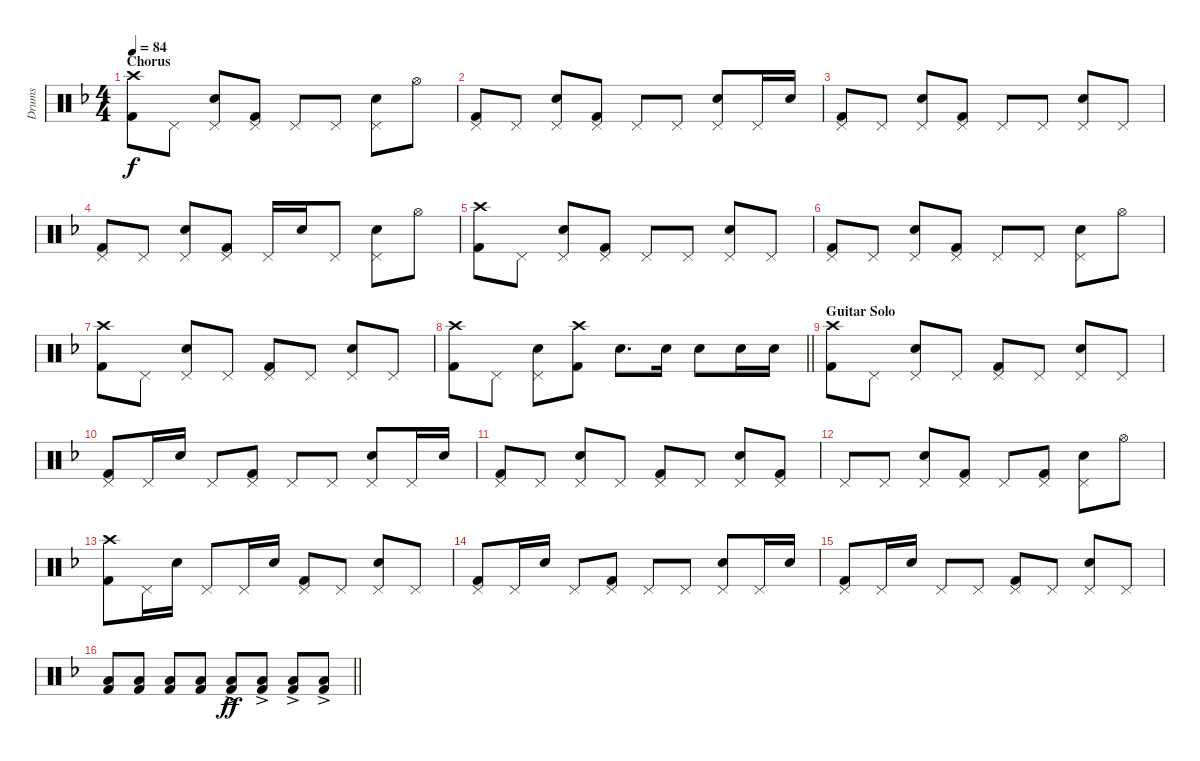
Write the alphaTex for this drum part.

\track ("Drums" "Drums") {instrument percussion}
\staff {score}
\articulation defaults
\ts (4 4)
\section ("" "Chorus")
\tempo 84
\clef neutral
\ks f
("Crash high (hit)" "Kick (hit) 2").8{dy f} "Pedal Hi-Hat (hit)".8 ("Pedal Hi-Hat (hit)" "Snare (hit) 2").8 ("Pedal Hi-Hat (hit)" "Kick (hit) 2").8 "Pedal Hi-Hat (hit)".8 "Pedal Hi-Hat (hit)".8 ("Pedal Hi-Hat (hit)" "Snare (hit) 2").8 "Hi-Hat (open)".8 |
("Pedal Hi-Hat (hit)" "Kick (hit) 2").8 "Pedal Hi-Hat (hit)".8 ("Pedal Hi-Hat (hit)" "Snare (hit) 2").8 ("Pedal Hi-Hat (hit)" "Kick (hit) 2").8 "Pedal Hi-Hat (hit)".8 "Pedal Hi-Hat (hit)".8 ("Pedal Hi-Hat (hit)" "Snare (hit) 2").8 "Pedal Hi-Hat (hit)".16 "Snare (hit) 2".16 |
("Pedal Hi-Hat (hit)" "Kick (hit) 2").8 "Pedal Hi-Hat (hit)".8 ("Pedal Hi-Hat (hit)" "Snare (hit) 2").8 ("Pedal Hi-Hat (hit)" "Kick (hit) 2").8 "Pedal Hi-Hat (hit)".8 "Pedal Hi-Hat (hit)".8 ("Pedal Hi-Hat (hit)" "Snare (hit) 2").8 "Pedal Hi-Hat (hit)".8 |
("Pedal Hi-Hat (hit)" "Kick (hit) 2").8 "Pedal Hi-Hat (hit)".8 ("Pedal Hi-Hat (hit)" "Snare (hit) 2").8 ("Pedal Hi-Hat (hit)" "Kick (hit) 2").8 "Pedal Hi-Hat (hit)".16 "Snare (hit) 2".16 "Pedal Hi-Hat (hit)".8 ("Pedal Hi-Hat (hit)" "Snare (hit) 2").8 "Hi-Hat (open)".8 |
("Crash high (hit)" "Kick (hit) 2").8 "Pedal Hi-Hat (hit)".8 ("Pedal Hi-Hat (hit)" "Snare (hit) 2").8 ("Pedal Hi-Hat (hit)" "Kick (hit) 2").8 "Pedal Hi-Hat (hit)".8 "Pedal Hi-Hat (hit)".8 ("Pedal Hi-Hat (hit)" "Snare (hit) 2").8 "Pedal Hi-Hat (hit)".8 |
("Pedal Hi-Hat (hit)" "Kick (hit) 2").8 "Pedal Hi-Hat (hit)".8 ("Pedal Hi-Hat (hit)" "Snare (hit) 2").8 ("Pedal Hi-Hat (hit)" "Kick (hit) 2").8 "Pedal Hi-Hat (hit)".8 "Pedal Hi-Hat (hit)".8 ("Pedal Hi-Hat (hit)" "Snare (hit) 2").8 "Hi-Hat (open)".8 |
("Crash high (hit)" "Kick (hit) 2").8 "Pedal Hi-Hat (hit)".8 ("Pedal Hi-Hat (hit)" "Snare (hit) 2").8 "Pedal Hi-Hat (hit)".8 ("Pedal Hi-Hat (hit)" "Kick (hit) 2").8 "Pedal Hi-Hat (hit)".8 ("Pedal Hi-Hat (hit)" "Snare (hit) 2").8 "Pedal Hi-Hat (hit)".8 |
\barLineRight lightlight
("Crash high (hit)" "Kick (hit) 2").8 "Pedal Hi-Hat (hit)".8 ("Pedal Hi-Hat (hit)" "Snare (hit) 2").8 ("Crash high (hit)" "Kick (hit) 2").8 "Snare (hit) 2".8{d} "Snare (hit) 2".16 "Snare (hit) 2".8 "Snare (hit) 2".16 "Snare (hit) 2".16 |
\section ("" "Guitar Solo")
("Crash high (hit)" "Kick (hit) 2").8 "Pedal Hi-Hat (hit)".8 ("Pedal Hi-Hat (hit)" "Snare (hit) 2").8 "Pedal Hi-Hat (hit)".8 ("Pedal Hi-Hat (hit)" "Kick (hit) 2").8 "Pedal Hi-Hat (hit)".8 ("Pedal Hi-Hat (hit)" "Snare (hit) 2").8 "Pedal Hi-Hat (hit)".8 |
("Pedal Hi-Hat (hit)" "Kick (hit) 2").8 "Pedal Hi-Hat (hit)".16 "Snare (hit) 2".16 "Pedal Hi-Hat (hit)".8 ("Pedal Hi-Hat (hit)" "Kick (hit) 2").8 "Pedal Hi-Hat (hit)".8 "Pedal Hi-Hat (hit)".8 ("Pedal Hi-Hat (hit)" "Snare (hit) 2").8 "Pedal Hi-Hat (hit)".16 "Snare (hit) 2".16 |
("Pedal Hi-Hat (hit)" "Kick (hit) 2").8 "Pedal Hi-Hat (hit)".8 ("Pedal Hi-Hat (hit)" "Snare (hit) 2").8 "Pedal Hi-Hat (hit)".8 ("Pedal Hi-Hat (hit)" "Kick (hit) 2").8 "Pedal Hi-Hat (hit)".8 ("Pedal Hi-Hat (hit)" "Snare (hit) 2").8 ("Pedal Hi-Hat (hit)" "Kick (hit) 2").8 |
"Pedal Hi-Hat (hit)".8 "Pedal Hi-Hat (hit)".8 ("Pedal Hi-Hat (hit)" "Snare (hit) 2").8 ("Pedal Hi-Hat (hit)" "Kick (hit) 2").8 "Pedal Hi-Hat (hit)".8 ("Pedal Hi-Hat (hit)" "Kick (hit) 2").8 ("Pedal Hi-Hat (hit)" "Snare (hit) 2").8 "Hi-Hat (open)".8 |
("Crash high (hit)" "Kick (hit) 2").8 "Pedal Hi-Hat (hit)".16 "Snare (hit) 2".16 "Pedal Hi-Hat (hit)".8 "Pedal Hi-Hat (hit)".16 "Snare (hit) 2".16 ("Pedal Hi-Hat (hit)" "Kick (hit) 2").8 "Pedal Hi-Hat (hit)".8 ("Pedal Hi-Hat (hit)" "Snare (hit) 2").8 "Pedal Hi-Hat (hit)".8 |
("Pedal Hi-Hat (hit)" "Kick (hit) 2").8 "Pedal Hi-Hat (hit)".16 "Snare (hit) 2".16 "Pedal Hi-Hat (hit)".8 ("Pedal Hi-Hat (hit)" "Kick (hit) 2").8 "Pedal Hi-Hat (hit)".8 "Pedal Hi-Hat (hit)".8 ("Pedal Hi-Hat (hit)" "Snare (hit) 2").8 "Pedal Hi-Hat (hit)".16 "Snare (hit) 2".16 |
("Pedal Hi-Hat (hit)" "Kick (hit) 2").8 "Pedal Hi-Hat (hit)".16 "Snare (hit) 2".16 "Pedal Hi-Hat (hit)".8 "Pedal Hi-Hat (hit)".8 ("Pedal Hi-Hat (hit)" "Kick (hit) 2").8 "Pedal Hi-Hat (hit)".8 ("Pedal Hi-Hat (hit)" "Snare (hit) 2").8 "Pedal Hi-Hat (hit)".8 |
\barLineRight lightlight
("Low Floor Tom (hit)" "Kick (hit) 2").8 ("Low Floor Tom (hit)" "Kick (hit) 2").8 ("Low Floor Tom (hit)" "Kick (hit) 2").8 ("Low Floor Tom (hit)" "Kick (hit) 2").8 ("Low Floor Tom (hit)"{ac} "Kick (hit) 2"{ac}).8{dy ff} ("Low Floor Tom (hit)"{ac} "Kick (hit) 2"{ac}).8 ("Low Floor Tom (hit)"{ac} "Kick (hit) 2"{ac}).8 ("Low Floor Tom (hit)"{ac} "Kick (hit) 2"{ac}).8
